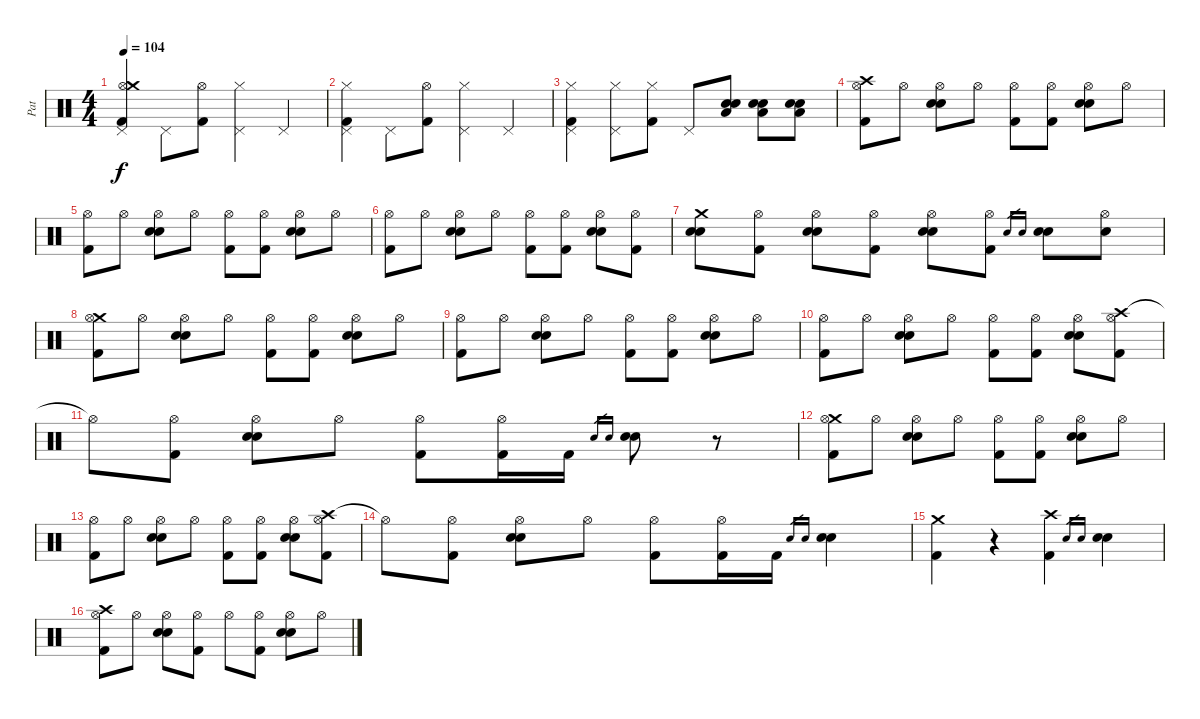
\track ("Pat" "Pat") {instrument percussion}
\staff {score}
\articulation defaults
\ts (4 4)
\tempo 104
\clef neutral
\ks c
("Pedal Hi-Hat (hit)" "Hi-Hat (open)" "Crash medium (hit)" "Kick (hit) 2").4{dy f} "Pedal Hi-Hat (hit)".8 ("Hi-Hat (open)" "Kick (hit) 2").8 ("Pedal Hi-Hat (hit)" "Hi-Hat (closed)").4 "Pedal Hi-Hat (hit)".4 |
("Pedal Hi-Hat (hit)" "Hi-Hat (closed)" "Kick (hit) 2").4 "Pedal Hi-Hat (hit)".8 ("Hi-Hat (open)" "Kick (hit) 2").8 ("Pedal Hi-Hat (hit)" "Hi-Hat (closed)").4 "Pedal Hi-Hat (hit)".4 |
("Pedal Hi-Hat (hit)" "Hi-Hat (closed)" "Kick (hit) 2").4 ("Pedal Hi-Hat (hit)" "Hi-Hat (closed)").8 ("Hi-Hat (closed)" "Kick (hit) 2").8 "Pedal Hi-Hat (hit)".8 ("Electric Snare (hit)" "Snare (hit) 2" "Low Tom (hit)").8 ("Electric Snare (hit)" "Snare (hit) 2" "Low Tom (hit)").8 ("Electric Snare (hit)" "Snare (hit) 2" "Low Tom (hit)").8 |
("Crash high (hit)" "Hi-Hat (open)" "Kick (hit) 2").8 "Hi-Hat (open)".8 ("Hi-Hat (open)" "Electric Snare (hit)" "Snare (hit) 2").8 "Hi-Hat (open)".8 ("Hi-Hat (open)" "Kick (hit) 2").8 ("Hi-Hat (open)" "Kick (hit) 2").8 ("Hi-Hat (open)" "Electric Snare (hit)" "Snare (hit) 2").8 "Hi-Hat (open)".8 |
("Hi-Hat (open)" "Kick (hit) 2").8 "Hi-Hat (open)".8 ("Hi-Hat (open)" "Electric Snare (hit)" "Snare (hit) 2").8 "Hi-Hat (open)".8 ("Hi-Hat (open)" "Kick (hit) 2").8 ("Hi-Hat (open)" "Kick (hit) 2").8 ("Hi-Hat (open)" "Electric Snare (hit)" "Snare (hit) 2").8 "Hi-Hat (open)".8 |
("Hi-Hat (open)" "Kick (hit) 2").8 "Hi-Hat (open)".8 ("Hi-Hat (open)" "Electric Snare (hit)" "Snare (hit) 2").8 "Hi-Hat (open)".8 ("Hi-Hat (open)" "Kick (hit) 2").8 ("Hi-Hat (open)" "Kick (hit) 2").8 ("Hi-Hat (open)" "Electric Snare (hit)" "Snare (hit) 2").8 ("Hi-Hat (open)" "Kick (hit) 2").8 |
("Crash medium (hit)" "Electric Snare (hit)" "Snare (hit) 2").8 ("Hi-Hat (open)" "Kick (hit) 2").8 ("Hi-Hat (open)" "Electric Snare (hit)" "Snare (hit) 2").8 ("Hi-Hat (open)" "Kick (hit) 2").8 ("Hi-Hat (open)" "Electric Snare (hit)" "Snare (hit) 2").8 ("Hi-Hat (open)" "Kick (hit) 2").8 "Electric Snare (hit)".16{gr} "Snare (hit) 2".16{gr} ("Electric Snare (hit)" "Snare (hit) 2").8 ("Hi-Hat (open)" "Electric Snare (hit)").8 |
("Crash medium (hit)" "Hi-Hat (open)" "Kick (hit) 2").8 "Hi-Hat (open)".8 ("Hi-Hat (open)" "Electric Snare (hit)" "Snare (hit) 2").8 "Hi-Hat (open)".8 ("Hi-Hat (open)" "Kick (hit) 2").8 ("Hi-Hat (open)" "Kick (hit) 2").8 ("Hi-Hat (open)" "Electric Snare (hit)" "Snare (hit) 2").8 "Hi-Hat (open)".8 |
("Hi-Hat (open)" "Kick (hit) 2").8 "Hi-Hat (open)".8 ("Hi-Hat (open)" "Electric Snare (hit)" "Snare (hit) 2").8 "Hi-Hat (open)".8 ("Hi-Hat (open)" "Kick (hit) 2").8 ("Hi-Hat (open)" "Kick (hit) 2").8 ("Hi-Hat (open)" "Electric Snare (hit)" "Snare (hit) 2").8 "Hi-Hat (open)".8 |
("Hi-Hat (open)" "Kick (hit) 2").8 "Hi-Hat (open)".8 ("Hi-Hat (open)" "Electric Snare (hit)" "Snare (hit) 2").8 "Hi-Hat (open)".8 ("Hi-Hat (open)" "Kick (hit) 2").8 ("Hi-Hat (open)" "Kick (hit) 2").8 ("Hi-Hat (open)" "Electric Snare (hit)" "Snare (hit) 2").8 ("Crash high (hit)" "Hi-Hat (open)" "Kick (hit) 2").8 |
"Hi-Hat (open)"{t}.8 ("Hi-Hat (open)" "Kick (hit) 2").8 ("Hi-Hat (open)" "Electric Snare (hit)" "Snare (hit) 2").8 "Hi-Hat (open)".8 ("Hi-Hat (open)" "Kick (hit) 2").8 ("Hi-Hat (open)" "Kick (hit) 2").16 "Kick (hit) 2".16 "Electric Snare (hit)".16{gr} "Snare (hit) 2".16{gr} ("Electric Snare (hit)" "Snare (hit) 2").8 r.8 |
("Crash medium (hit)" "Hi-Hat (open)" "Kick (hit) 2").8 "Hi-Hat (open)".8 ("Hi-Hat (open)" "Electric Snare (hit)" "Snare (hit) 2").8 "Hi-Hat (open)".8 ("Hi-Hat (open)" "Kick (hit) 2").8 ("Hi-Hat (open)" "Kick (hit) 2").8 ("Hi-Hat (open)" "Electric Snare (hit)" "Snare (hit) 2").8 "Hi-Hat (open)".8 |
("Hi-Hat (open)" "Kick (hit) 2").8 "Hi-Hat (open)".8 ("Hi-Hat (open)" "Electric Snare (hit)" "Snare (hit) 2").8 "Hi-Hat (open)".8 ("Hi-Hat (open)" "Kick (hit) 2").8 ("Hi-Hat (open)" "Kick (hit) 2").8 ("Hi-Hat (open)" "Electric Snare (hit)" "Snare (hit) 2").8 ("Crash high (hit)" "Hi-Hat (open)" "Kick (hit) 2").8 |
"Hi-Hat (open)"{t}.8 ("Hi-Hat (open)" "Kick (hit) 2").8 ("Hi-Hat (open)" "Electric Snare (hit)" "Snare (hit) 2").8 "Hi-Hat (open)".8 ("Hi-Hat (open)" "Kick (hit) 2").8 ("Hi-Hat (open)" "Kick (hit) 2").16 "Kick (hit) 2".16 "Electric Snare (hit)".16{gr} "Snare (hit) 2".16{gr} ("Electric Snare (hit)" "Snare (hit) 2").4 |
("Crash medium (hit)" "Kick (hit) 2").4 r.4 ("Crash high (hit)" "Kick (hit) 2").4 "Electric Snare (hit)".16{gr} "Snare (hit) 2".16{gr} ("Electric Snare (hit)" "Snare (hit) 2").4 |
("Crash high (hit)" "Hi-Hat (open)" "Kick (hit) 2").8 "Hi-Hat (open)".8 ("Hi-Hat (open)" "Electric Snare (hit)" "Snare (hit) 2").8 ("Hi-Hat (open)" "Kick (hit) 2").8 "Hi-Hat (open)".8 ("Hi-Hat (open)" "Kick (hit) 2").8 ("Hi-Hat (open)" "Electric Snare (hit)" "Snare (hit) 2").8 "Hi-Hat (open)".8
